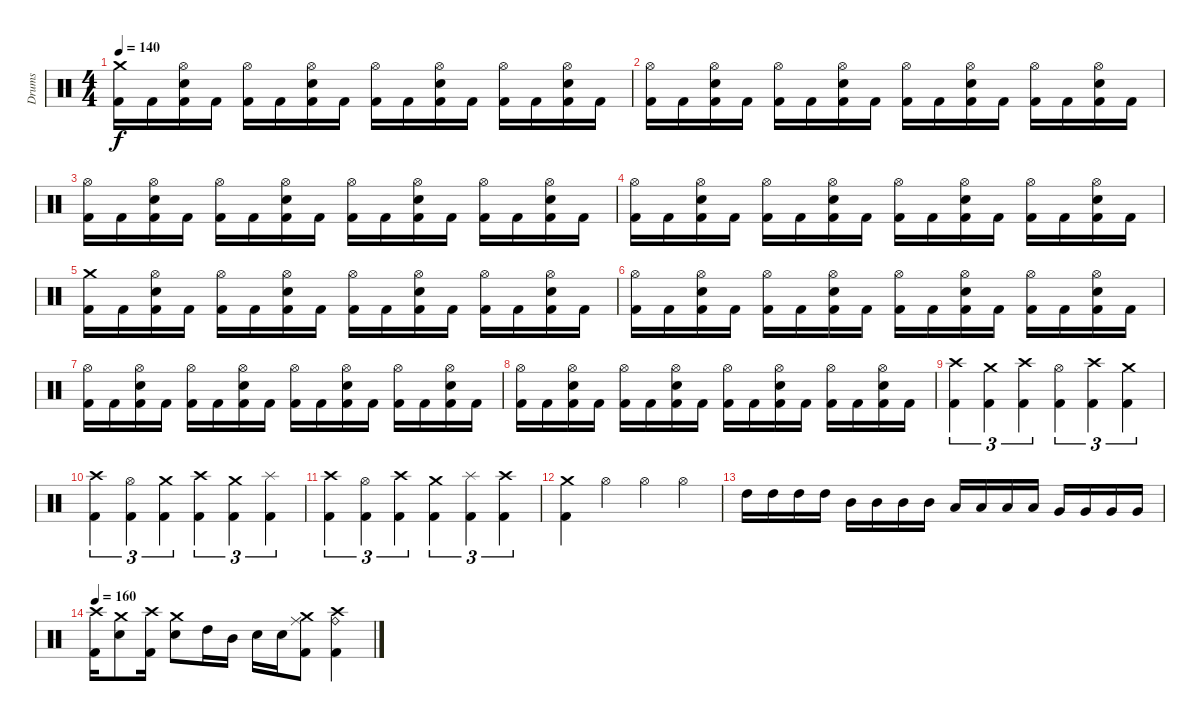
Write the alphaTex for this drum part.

\track ("Drums" "Drums") {instrument percussion}
\staff {score}
\articulation defaults
\ts (4 4)
\tempo 140
\clef neutral
\ks c
("Kick (hit) 2" "Crash medium (hit)").16{dy f} "Kick (hit) 2".16 ("Snare (hit) 2" "Hi-Hat (open)" "Kick (hit) 2").16 "Kick (hit) 2".16 ("Hi-Hat (open)" "Kick (hit) 2").16 "Kick (hit) 2".16 ("Hi-Hat (open)" "Snare (hit) 2" "Kick (hit) 2").16 "Kick (hit) 2".16 ("Hi-Hat (open)" "Kick (hit) 2").16 "Kick (hit) 2".16 ("Snare (hit) 2" "Kick (hit) 2" "Hi-Hat (open)").16 "Kick (hit) 2".16 ("Kick (hit) 2" "Hi-Hat (open)").16 "Kick (hit) 2".16 ("Snare (hit) 2" "Hi-Hat (open)" "Kick (hit) 2").16 "Kick (hit) 2".16 |
("Kick (hit) 2" "Hi-Hat (open)").16 "Kick (hit) 2".16 ("Snare (hit) 2" "Hi-Hat (open)" "Kick (hit) 2").16 "Kick (hit) 2".16 ("Hi-Hat (open)" "Kick (hit) 2").16 "Kick (hit) 2".16 ("Snare (hit) 2" "Kick (hit) 2" "Hi-Hat (open)").16 "Kick (hit) 2".16 ("Kick (hit) 2" "Hi-Hat (open)").16 "Kick (hit) 2".16 ("Snare (hit) 2" "Hi-Hat (open)" "Kick (hit) 2").16 "Kick (hit) 2".16 ("Kick (hit) 2" "Hi-Hat (open)").16 "Kick (hit) 2".16 ("Snare (hit) 2" "Hi-Hat (open)" "Kick (hit) 2").16 "Kick (hit) 2".16 |
("Kick (hit) 2" "Hi-Hat (open)").16 "Kick (hit) 2".16 ("Snare (hit) 2" "Kick (hit) 2" "Hi-Hat (open)").16 "Kick (hit) 2".16 ("Hi-Hat (open)" "Kick (hit) 2").16 "Kick (hit) 2".16 ("Snare (hit) 2" "Kick (hit) 2" "Hi-Hat (open)").16 "Kick (hit) 2".16 ("Hi-Hat (open)" "Kick (hit) 2").16 "Kick (hit) 2".16 ("Hi-Hat (open)" "Kick (hit) 2" "Snare (hit) 2").16 "Kick (hit) 2".16 ("Hi-Hat (open)" "Kick (hit) 2").16 "Kick (hit) 2".16 ("Hi-Hat (open)" "Kick (hit) 2" "Snare (hit) 2").16 "Kick (hit) 2".16 |
("Hi-Hat (open)" "Kick (hit) 2").16 "Kick (hit) 2".16 ("Snare (hit) 2" "Kick (hit) 2" "Hi-Hat (open)").16 "Kick (hit) 2".16 ("Hi-Hat (open)" "Kick (hit) 2").16 "Kick (hit) 2".16 ("Hi-Hat (open)" "Kick (hit) 2" "Snare (hit) 2").16 "Kick (hit) 2".16 ("Hi-Hat (open)" "Kick (hit) 2").16 "Kick (hit) 2".16 ("Snare (hit) 2" "Kick (hit) 2" "Hi-Hat (open)").16 "Kick (hit) 2".16 ("Kick (hit) 2" "Hi-Hat (open)").16 "Kick (hit) 2".16 ("Snare (hit) 2" "Hi-Hat (open)" "Kick (hit) 2").16 "Kick (hit) 2".16 |
("Crash medium (hit)" "Kick (hit) 2").16 "Kick (hit) 2".16 ("Snare (hit) 2" "Kick (hit) 2" "Hi-Hat (open)").16 "Kick (hit) 2".16 ("Hi-Hat (open)" "Kick (hit) 2").16 "Kick (hit) 2".16 ("Hi-Hat (open)" "Snare (hit) 2" "Kick (hit) 2").16 "Kick (hit) 2".16 ("Kick (hit) 2" "Hi-Hat (open)").16 "Kick (hit) 2".16 ("Snare (hit) 2" "Hi-Hat (open)" "Kick (hit) 2").16 "Kick (hit) 2".16 ("Hi-Hat (open)" "Kick (hit) 2").16 "Kick (hit) 2".16 ("Snare (hit) 2" "Kick (hit) 2" "Hi-Hat (open)").16 "Kick (hit) 2".16 |
("Hi-Hat (open)" "Kick (hit) 2").16 "Kick (hit) 2".16 ("Kick (hit) 2" "Hi-Hat (open)" "Snare (hit) 2").16 "Kick (hit) 2".16 ("Kick (hit) 2" "Hi-Hat (open)").16 "Kick (hit) 2".16 ("Hi-Hat (open)" "Kick (hit) 2" "Snare (hit) 2").16 "Kick (hit) 2".16 ("Kick (hit) 2" "Hi-Hat (open)").16 "Kick (hit) 2".16 ("Hi-Hat (open)" "Kick (hit) 2" "Snare (hit) 2").16 "Kick (hit) 2".16 ("Kick (hit) 2" "Hi-Hat (open)").16 "Kick (hit) 2".16 ("Hi-Hat (open)" "Snare (hit) 2" "Kick (hit) 2").16 "Kick (hit) 2".16 |
("Kick (hit) 2" "Hi-Hat (open)").16 "Kick (hit) 2".16 ("Hi-Hat (open)" "Kick (hit) 2" "Snare (hit) 2").16 "Kick (hit) 2".16 ("Kick (hit) 2" "Hi-Hat (open)").16 "Kick (hit) 2".16 ("Hi-Hat (open)" "Kick (hit) 2" "Snare (hit) 2").16 "Kick (hit) 2".16 ("Kick (hit) 2" "Hi-Hat (open)").16 "Kick (hit) 2".16 ("Hi-Hat (open)" "Kick (hit) 2" "Snare (hit) 2").16 "Kick (hit) 2".16 ("Hi-Hat (open)" "Kick (hit) 2").16 "Kick (hit) 2".16 ("Snare (hit) 2" "Kick (hit) 2" "Hi-Hat (open)").16 "Kick (hit) 2".16 |
("Hi-Hat (open)" "Kick (hit) 2").16 "Kick (hit) 2".16 ("Hi-Hat (open)" "Kick (hit) 2" "Snare (hit) 2").16 "Kick (hit) 2".16 ("Kick (hit) 2" "Hi-Hat (open)").16 "Kick (hit) 2".16 ("Hi-Hat (open)" "Snare (hit) 2" "Kick (hit) 2").16 "Kick (hit) 2".16 ("Hi-Hat (open)" "Kick (hit) 2").16 "Kick (hit) 2".16 ("Snare (hit) 2" "Kick (hit) 2" "Hi-Hat (open)").16 "Kick (hit) 2".16 ("Hi-Hat (open)" "Kick (hit) 2").16 "Kick (hit) 2".16 ("Hi-Hat (open)" "Kick (hit) 2" "Snare (hit) 2").16 "Kick (hit) 2".16 |
("Crash high (hit)" "Kick (hit) 2").4{tu (3 2)} ("Crash medium (hit)" "Kick (hit) 2").4{tu (3 2)} ("Crash high (hit)" "Kick (hit) 2").4{tu (3 2)} ("Hi-Hat (open)" "Kick (hit) 2").4{tu (3 2)} ("Crash high (hit)" "Kick (hit) 2").4{tu (3 2)} ("Crash medium (hit)" "Kick (hit) 2").4{tu (3 2)} |
("Crash high (hit)" "Kick (hit) 2").4{tu (3 2)} ("Hi-Hat (open)" "Kick (hit) 2").4{tu (3 2)} ("Crash medium (hit)" "Kick (hit) 2").4{tu (3 2)} ("Crash high (hit)" "Kick (hit) 2").4{tu (3 2)} ("Crash medium (hit)" "Kick (hit) 2").4{tu (3 2)} ("Splash (hit)" "Kick (hit) 2").4{tu (3 2)} |
("Crash high (hit)" "Kick (hit) 2").4{tu (3 2)} ("Hi-Hat (open)" "Kick (hit) 2").4{tu (3 2)} ("Crash high (hit)" "Kick (hit) 2").4{tu (3 2)} ("Crash medium (hit)" "Kick (hit) 2").4{tu (3 2)} ("Splash (hit)" "Kick (hit) 2").4{tu (3 2)} ("Crash high (hit)" "Kick (hit) 2").4{tu (3 2)} |
("Crash medium (hit)" "Kick (hit) 2").4 "Hi-Hat (open)".4 "Hi-Hat (open)".4 "Hi-Hat (open)".4 |
"High Tom (hit)".16 "High Tom (hit)".16 "High Tom (hit)".16 "High Tom (hit)".16 "Mid Tom (hit)".16 "Mid Tom (hit)".16 "Mid Tom (hit)".16 "Mid Tom (hit)".16 "Low Tom (hit)".16 "Low Tom (hit)".16 "Low Tom (hit)".16 "Low Tom (hit)".16 "Very Low Tom (hit)".16 "Very Low Tom (hit)".16 "Very Low Tom (hit)".16 "Very Low Tom (hit)".16 |
\tempo 160
("Kick (hit) 2" "Crash high (hit)").16 ("Snare (hit) 2" "Crash medium (hit)").8 ("Kick (hit) 2" "Crash high (hit)").16 ("Snare (hit) 2" "Crash medium (hit)").8 "High Tom (hit)".16 "Mid Tom (hit)".16 "Snare (hit) 2".16 "Snare (hit) 2".16 ("Kick (hit) 2" "Crash medium (hit)" "Ride (middle)").8 ("Kick (hit) 2" "Crash high (hit)" "Ride (bell)").4
